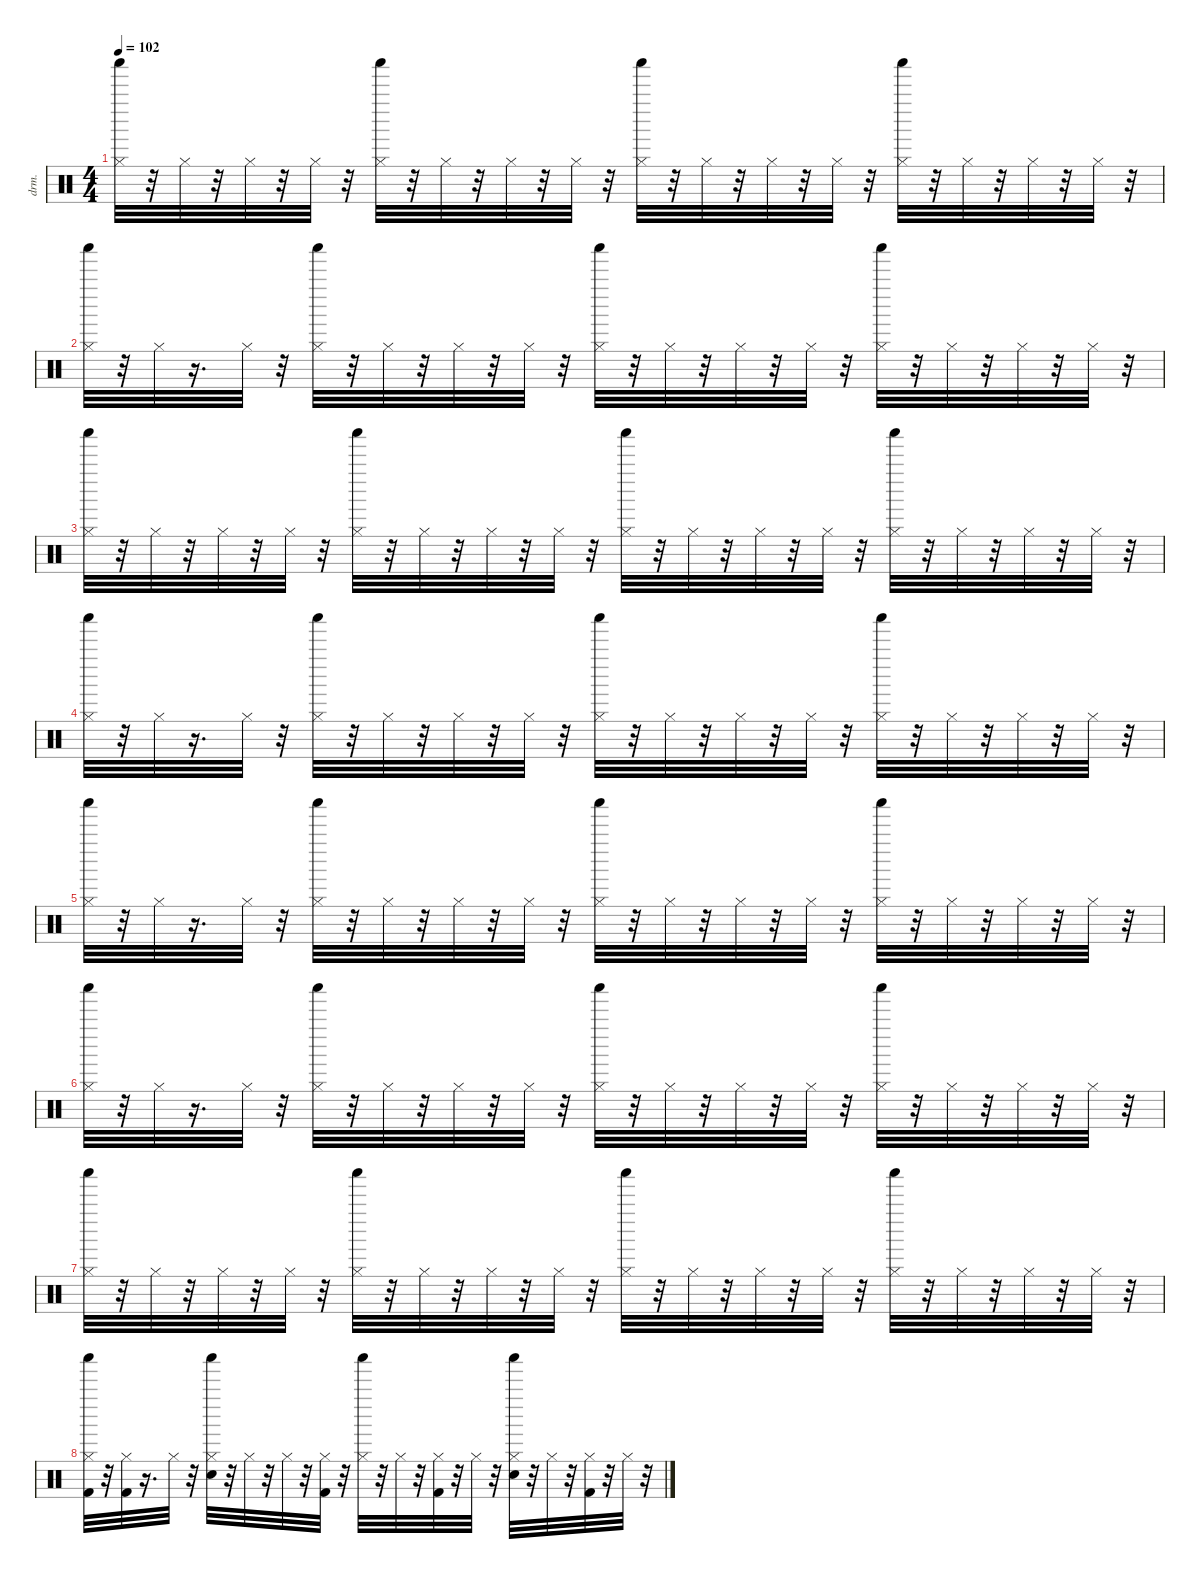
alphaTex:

\defaultSystemsLayout 4
\hideDynamics
\bracketExtendMode nobrackets
\otherSystemsTrackNameOrientation horizontal
\track ("Nick Mason / Gary Wallis" "drm.") {instrument percussion}
\staff {score}
\articulation defaults
\ts (4 4)
\tempo 102
\clef neutral
\ks c
("Hi-Hat (closed)" "Shaker (hit)").32{dy mf beam Down} r.32{beam Down} "Hi-Hat (closed)".32{dy pp beam Down} r.32{beam Down} "Hi-Hat (closed)".32{dy ppp beam Down} r.32{beam Down} "Hi-Hat (closed)".32{dy p beam Down} r.32{beam Down} ("Hi-Hat (closed)" "Shaker (hit)").32{dy mf beam Down} r.32{beam Down} "Hi-Hat (closed)".32{dy ppp beam Down} r.32{beam Down} "Hi-Hat (closed)".32{dy mp beam Down} r.32{beam Down} "Hi-Hat (closed)".32{dy ppp beam Down} r.32{beam Down} ("Hi-Hat (closed)" "Shaker (hit)").32{dy mf beam Down} r.32{beam Down} "Hi-Hat (closed)".32{dy pp beam Down} r.32{beam Down} "Hi-Hat (closed)".32{dy ppp beam Down} r.32{beam Down} "Hi-Hat (closed)".32{dy p beam Down} r.32{beam Down} ("Hi-Hat (closed)" "Shaker (hit)").32{dy mf beam Down} r.32{beam Down} "Hi-Hat (closed)".32{dy ppp beam Down} r.32{beam Down} "Hi-Hat (closed)".32{dy pp beam Down} r.32{beam Down} "Hi-Hat (closed)".32{dy p beam Down} r.32{beam Down} |
("Hi-Hat (closed)" "Shaker (hit)").32{dy mf beam Down} r.32{beam Down} "Hi-Hat (closed)".32{dy mp beam Down} r.16{d beam Down} "Hi-Hat (closed)".32{dy pp beam Down} r.32{beam Down} ("Hi-Hat (closed)" "Shaker (hit)").32{dy mf beam Down} r.32{beam Down} "Hi-Hat (closed)".32{dy pp beam Down} r.32{beam Down} "Hi-Hat (closed)".32{dy mp beam Down} r.32{beam Down} "Hi-Hat (closed)".32{dy ppp beam Down} r.32{beam Down} ("Hi-Hat (closed)" "Shaker (hit)").32{dy mf beam Down} r.32{beam Down} "Hi-Hat (closed)".32{dy ppp beam Down} r.32{beam Down} "Hi-Hat (closed)".32{dy pp beam Down} r.32{beam Down} "Hi-Hat (closed)".32{beam Down} r.32{beam Down} ("Hi-Hat (closed)" "Shaker (hit)").32{dy mf beam Down} r.32{beam Down} "Hi-Hat (closed)".32{dy ppp beam Down} r.32{beam Down} "Hi-Hat (closed)".32{dy pp beam Down} r.32{beam Down} "Hi-Hat (closed)".32{dy mp beam Down} r.32{beam Down} |
("Hi-Hat (closed)" "Shaker (hit)").32{dy mf beam Down} r.32{beam Down} "Hi-Hat (closed)".32{dy pp beam Down} r.32{beam Down} "Hi-Hat (closed)".32{dy ppp beam Down} r.32{beam Down} "Hi-Hat (closed)".32{dy p beam Down} r.32{beam Down} ("Hi-Hat (closed)" "Shaker (hit)").32{dy mf beam Down} r.32{beam Down} "Hi-Hat (closed)".32{dy ppp beam Down} r.32{beam Down} "Hi-Hat (closed)".32{dy mp beam Down} r.32{beam Down} "Hi-Hat (closed)".32{dy ppp beam Down} r.32{beam Down} ("Hi-Hat (closed)" "Shaker (hit)").32{dy mf beam Down} r.32{beam Down} "Hi-Hat (closed)".32{dy pp beam Down} r.32{beam Down} "Hi-Hat (closed)".32{dy ppp beam Down} r.32{beam Down} "Hi-Hat (closed)".32{dy p beam Down} r.32{beam Down} ("Hi-Hat (closed)" "Shaker (hit)").32{dy mf beam Down} r.32{beam Down} "Hi-Hat (closed)".32{dy ppp beam Down} r.32{beam Down} "Hi-Hat (closed)".32{dy pp beam Down} r.32{beam Down} "Hi-Hat (closed)".32{dy p beam Down} r.32{beam Down} |
("Hi-Hat (closed)" "Shaker (hit)").32{dy mf beam Down} r.32{beam Down} "Hi-Hat (closed)".32{dy mp beam Down} r.16{d beam Down} "Hi-Hat (closed)".32{dy pp beam Down} r.32{beam Down} ("Hi-Hat (closed)" "Shaker (hit)").32{dy mf beam Down} r.32{beam Down} "Hi-Hat (closed)".32{dy pp beam Down} r.32{beam Down} "Hi-Hat (closed)".32{dy mp beam Down} r.32{beam Down} "Hi-Hat (closed)".32{dy ppp beam Down} r.32{beam Down} ("Hi-Hat (closed)" "Shaker (hit)").32{dy mf beam Down} r.32{beam Down} "Hi-Hat (closed)".32{dy ppp beam Down} r.32{beam Down} "Hi-Hat (closed)".32{dy pp beam Down} r.32{beam Down} "Hi-Hat (closed)".32{beam Down} r.32{beam Down} ("Hi-Hat (closed)" "Shaker (hit)").32{dy mf beam Down} r.32{beam Down} "Hi-Hat (closed)".32{dy ppp beam Down} r.32{beam Down} "Hi-Hat (closed)".32{dy pp beam Down} r.32{beam Down} "Hi-Hat (closed)".32{dy mp beam Down} r.32{beam Down} |
("Hi-Hat (closed)" "Shaker (hit)").32{dy mf beam Down} r.32{beam Down} "Hi-Hat (closed)".32{dy mp beam Down} r.16{d beam Down} "Hi-Hat (closed)".32{dy pp beam Down} r.32{beam Down} ("Hi-Hat (closed)" "Shaker (hit)").32{dy mf beam Down} r.32{beam Down} "Hi-Hat (closed)".32{dy pp beam Down} r.32{beam Down} "Hi-Hat (closed)".32{dy mp beam Down} r.32{beam Down} "Hi-Hat (closed)".32{dy ppp beam Down} r.32{beam Down} ("Hi-Hat (closed)" "Shaker (hit)").32{dy mf beam Down} r.32{beam Down} "Hi-Hat (closed)".32{dy ppp beam Down} r.32{beam Down} "Hi-Hat (closed)".32{dy pp beam Down} r.32{beam Down} "Hi-Hat (closed)".32{beam Down} r.32{beam Down} ("Hi-Hat (closed)" "Shaker (hit)").32{dy mf beam Down} r.32{beam Down} "Hi-Hat (closed)".32{dy ppp beam Down} r.32{beam Down} "Hi-Hat (closed)".32{dy pp beam Down} r.32{beam Down} "Hi-Hat (closed)".32{dy mp beam Down} r.32{beam Down} |
("Hi-Hat (closed)" "Shaker (hit)").32{dy mf beam Down} r.32{beam Down} "Hi-Hat (closed)".32{dy mp beam Down} r.16{d beam Down} "Hi-Hat (closed)".32{dy pp beam Down} r.32{beam Down} ("Hi-Hat (closed)" "Shaker (hit)").32{dy mf beam Down} r.32{beam Down} "Hi-Hat (closed)".32{dy pp beam Down} r.32{beam Down} "Hi-Hat (closed)".32{dy mp beam Down} r.32{beam Down} "Hi-Hat (closed)".32{dy ppp beam Down} r.32{beam Down} ("Hi-Hat (closed)" "Shaker (hit)").32{dy mf beam Down} r.32{beam Down} "Hi-Hat (closed)".32{dy ppp beam Down} r.32{beam Down} "Hi-Hat (closed)".32{dy pp beam Down} r.32{beam Down} "Hi-Hat (closed)".32{beam Down} r.32{beam Down} ("Hi-Hat (closed)" "Shaker (hit)").32{dy mf beam Down} r.32{beam Down} "Hi-Hat (closed)".32{dy ppp beam Down} r.32{beam Down} "Hi-Hat (closed)".32{dy pp beam Down} r.32{beam Down} "Hi-Hat (closed)".32{dy mp beam Down} r.32{beam Down} |
("Hi-Hat (closed)" "Shaker (hit)").32{dy mf beam Down} r.32{beam Down} "Hi-Hat (closed)".32{dy pp beam Down} r.32{beam Down} "Hi-Hat (closed)".32{dy ppp beam Down} r.32{beam Down} "Hi-Hat (closed)".32{dy p beam Down} r.32{beam Down} ("Hi-Hat (closed)" "Shaker (hit)").32{dy mf beam Down} r.32{beam Down} "Hi-Hat (closed)".32{dy ppp beam Down} r.32{beam Down} "Hi-Hat (closed)".32{dy mp beam Down} r.32{beam Down} "Hi-Hat (closed)".32{dy ppp beam Down} r.32{beam Down} ("Hi-Hat (closed)" "Shaker (hit)").32{dy mf beam Down} r.32{beam Down} "Hi-Hat (closed)".32{dy pp beam Down} r.32{beam Down} "Hi-Hat (closed)".32{dy ppp beam Down} r.32{beam Down} "Hi-Hat (closed)".32{dy p beam Down} r.32{beam Down} ("Hi-Hat (closed)" "Shaker (hit)").32{dy mf beam Down} r.32{beam Down} "Hi-Hat (closed)".32{dy ppp beam Down} r.32{beam Down} "Hi-Hat (closed)".32{dy pp beam Down} r.32{beam Down} "Hi-Hat (closed)".32{dy p beam Down} r.32{beam Down} |
("Kick (hit) 2" "Hi-Hat (closed)" "Shaker (hit)").32{dy ff beam Down} r.32{beam Down} ("Hi-Hat (closed)" "Kick (hit) 2").32{dy mp beam Down} r.16{d beam Down} "Hi-Hat (closed)".32{dy pp beam Down} r.32{beam Down} ("Snare (hit) 2" "Hi-Hat (closed)" "Shaker (hit)").32{dy p beam Down} r.32{beam Down} "Hi-Hat (closed)".32{dy pp beam Down} r.32{beam Down} "Hi-Hat (closed)".32{dy mp beam Down} r.32{beam Down} ("Hi-Hat (closed)" "Kick (hit) 2").32{dy ppp beam Down} r.32{beam Down} ("Hi-Hat (closed)" "Shaker (hit)").32{dy mf beam Down} r.32{beam Down} "Hi-Hat (closed)".32{dy ppp beam Down} r.32{beam Down} ("Hi-Hat (closed)" "Kick (hit) 2").32{dy pp beam Down} r.32{beam Down} "Hi-Hat (closed)".32{beam Down} r.32{beam Down} ("Snare (hit) 2" "Hi-Hat (closed)" "Shaker (hit)").32{dy p beam Down} r.32{beam Down} "Hi-Hat (closed)".32{dy ppp beam Down} r.32{beam Down} ("Kick (hit) 2" "Hi-Hat (closed)").32{dy f beam Down} r.32{beam Down} "Hi-Hat (closed)".32{dy mp beam Down} r.32{beam Down}
